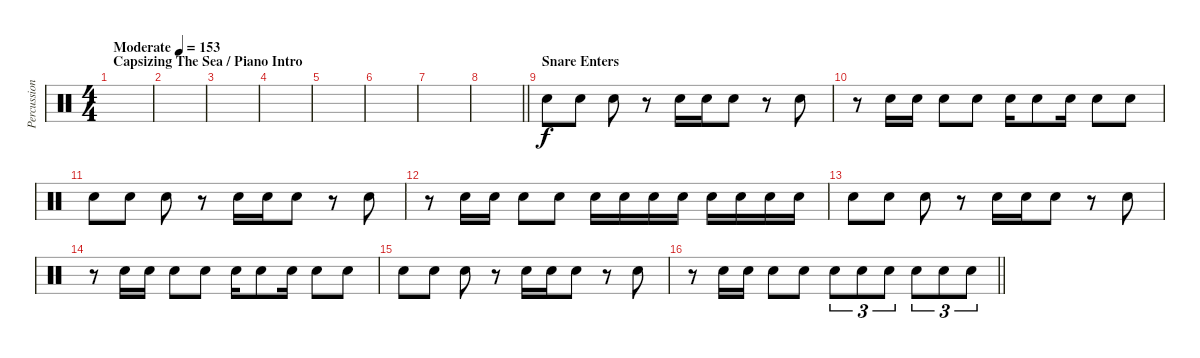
\track ("Percussion" "Percussion") {instrument percussion}
\staff {score}
\articulation defaults
\ts (4 4)
\section ("" "Capsizing The Sea / Piano Intro")
\tempo (153 "Moderate")
\clef neutral
\ks c
|
|
|
|
|
|
|
\barLineRight lightlight
|
\section ("" "Snare Enters")
"Snare (hit) 2".8 "Snare (hit) 2".8 "Snare (hit) 2".8 r.8 "Snare (hit) 2".16 "Snare (hit) 2".16 "Snare (hit) 2".8 r.8 "Snare (hit) 2".8 |
r.8 "Snare (hit) 2".16 "Snare (hit) 2".16 "Snare (hit) 2".8 "Snare (hit) 2".8 "Snare (hit) 2".16 "Snare (hit) 2".8 "Snare (hit) 2".16 "Snare (hit) 2".8 "Snare (hit) 2".8 |
"Snare (hit) 2".8 "Snare (hit) 2".8 "Snare (hit) 2".8 r.8 "Snare (hit) 2".16 "Snare (hit) 2".16 "Snare (hit) 2".8 r.8 "Snare (hit) 2".8 |
r.8 "Snare (hit) 2".16 "Snare (hit) 2".16 "Snare (hit) 2".8 "Snare (hit) 2".8 "Snare (hit) 2".16 "Snare (hit) 2".16 "Snare (hit) 2".16 "Snare (hit) 2".16 "Snare (hit) 2".16 "Snare (hit) 2".16 "Snare (hit) 2".16 "Snare (hit) 2".16 |
"Snare (hit) 2".8 "Snare (hit) 2".8 "Snare (hit) 2".8 r.8 "Snare (hit) 2".16 "Snare (hit) 2".16 "Snare (hit) 2".8 r.8 "Snare (hit) 2".8 |
r.8 "Snare (hit) 2".16 "Snare (hit) 2".16 "Snare (hit) 2".8 "Snare (hit) 2".8 "Snare (hit) 2".16 "Snare (hit) 2".8 "Snare (hit) 2".16 "Snare (hit) 2".8 "Snare (hit) 2".8 |
"Snare (hit) 2".8 "Snare (hit) 2".8 "Snare (hit) 2".8 r.8 "Snare (hit) 2".16 "Snare (hit) 2".16 "Snare (hit) 2".8 r.8 "Snare (hit) 2".8 |
\barLineRight lightlight
r.8 "Snare (hit) 2".16 "Snare (hit) 2".16 "Snare (hit) 2".8 "Snare (hit) 2".8 "Snare (hit) 2".8{tu (3 2)} "Snare (hit) 2".8{tu (3 2)} "Snare (hit) 2".8{tu (3 2)} "Snare (hit) 2".8{tu (3 2)} "Snare (hit) 2".8{tu (3 2)} "Snare (hit) 2".8{tu (3 2)}
